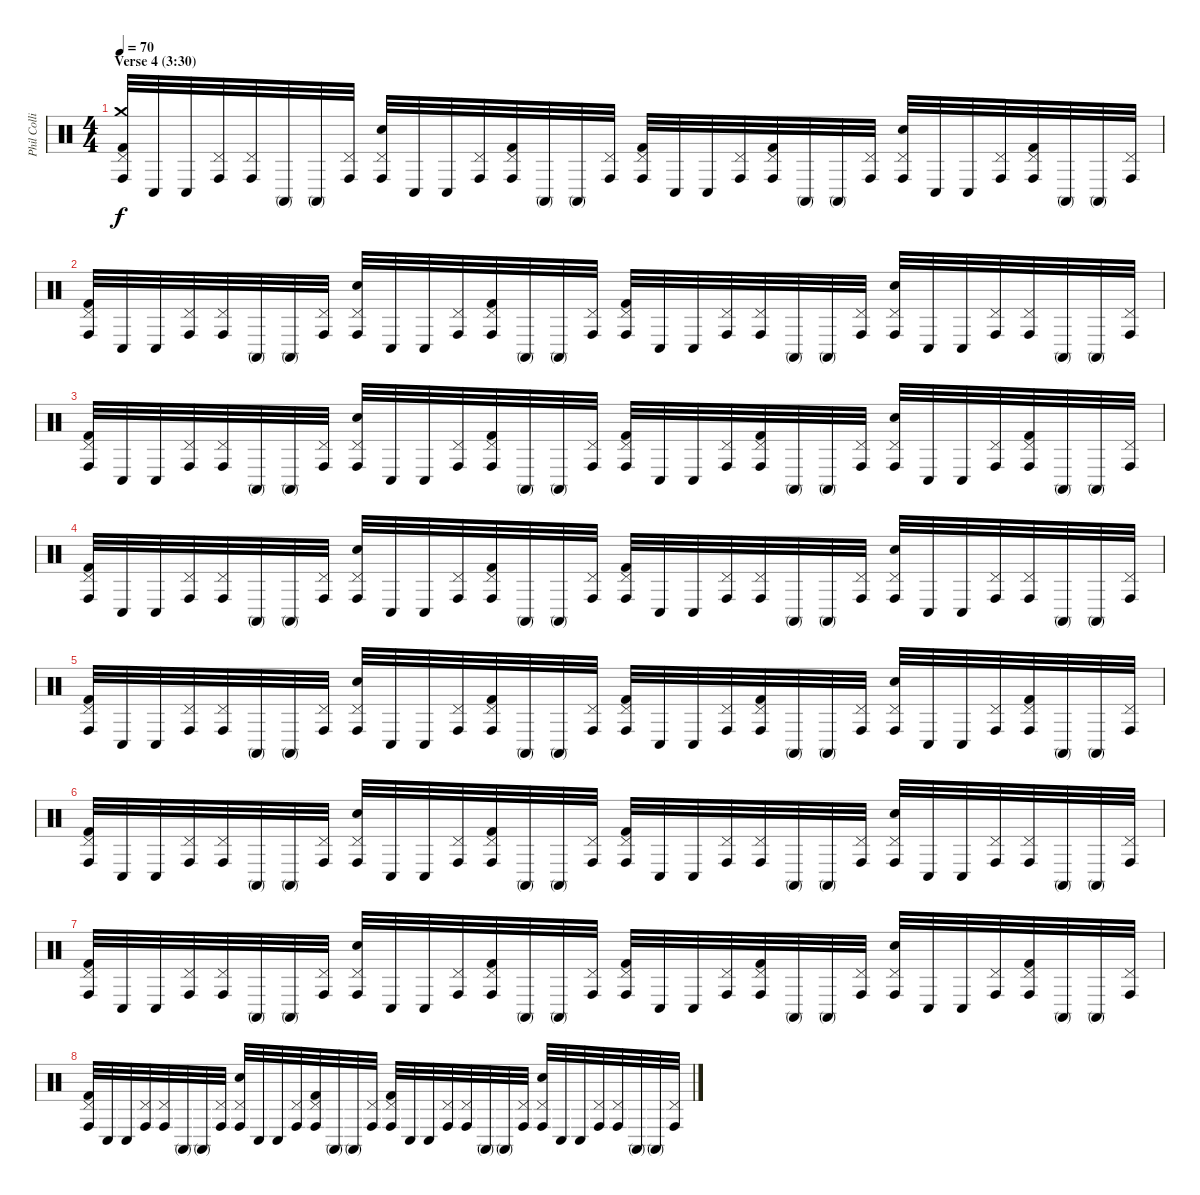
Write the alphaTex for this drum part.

\track ("Phil Collins (drums)" "Phil Colli") {instrument percussion}
\staff {score}
\articulation defaults
\ts (4 4)
\section ("" "Verse 4 (3:30)")
\tempo 70
\clef neutral
\ks c
("Crash medium (hit)" "Conga high (hit)" "Pedal Hi-Hat (hit)" "Kick (hit) 2").32{dy f} "Conga low (hit)".32 "Conga low (hit)".32 ("Conga high (hit)" "Pedal Hi-Hat (hit)").32 ("Conga high (hit)" "Pedal Hi-Hat (hit)").32 "Conga high (mute)".32 "Conga high (mute)".32 ("Conga high (hit)" "Pedal Hi-Hat (hit)").32 ("Conga high (hit)" "Pedal Hi-Hat (hit)" "Electric Snare (hit)").32 "Conga low (hit)".32 "Conga low (hit)".32 ("Conga high (hit)" "Pedal Hi-Hat (hit)").32 ("Conga high (hit)" "Pedal Hi-Hat (hit)" "Kick (hit) 2").32 "Conga high (mute)".32 "Conga high (mute)".32 ("Conga high (hit)" "Pedal Hi-Hat (hit)").32 ("Conga high (hit)" "Pedal Hi-Hat (hit)" "Kick (hit) 2").32 "Conga low (hit)".32 "Conga low (hit)".32 ("Conga high (hit)" "Pedal Hi-Hat (hit)").32 ("Conga high (hit)" "Pedal Hi-Hat (hit)" "Kick (hit) 2").32 "Conga high (mute)".32 "Conga high (mute)".32 ("Conga high (hit)" "Pedal Hi-Hat (hit)").32 ("Conga high (hit)" "Pedal Hi-Hat (hit)" "Electric Snare (hit)").32 "Conga low (hit)".32 "Conga low (hit)".32 ("Conga high (hit)" "Pedal Hi-Hat (hit)").32 ("Conga high (hit)" "Pedal Hi-Hat (hit)" "Kick (hit) 2").32 "Conga high (mute)".32 "Conga high (mute)".32 ("Conga high (hit)" "Pedal Hi-Hat (hit)").32 |
("Conga high (hit)" "Pedal Hi-Hat (hit)" "Kick (hit) 2").32 "Conga low (hit)".32 "Conga low (hit)".32 ("Conga high (hit)" "Pedal Hi-Hat (hit)").32 ("Conga high (hit)" "Pedal Hi-Hat (hit)").32 "Conga high (mute)".32 "Conga high (mute)".32 ("Conga high (hit)" "Pedal Hi-Hat (hit)").32 ("Conga high (hit)" "Pedal Hi-Hat (hit)" "Electric Snare (hit)").32 "Conga low (hit)".32 "Conga low (hit)".32 ("Conga high (hit)" "Pedal Hi-Hat (hit)").32 ("Conga high (hit)" "Pedal Hi-Hat (hit)" "Kick (hit) 2").32 "Conga high (mute)".32 "Conga high (mute)".32 ("Conga high (hit)" "Pedal Hi-Hat (hit)").32 ("Conga high (hit)" "Pedal Hi-Hat (hit)" "Kick (hit) 2").32 "Conga low (hit)".32 "Conga low (hit)".32 ("Conga high (hit)" "Pedal Hi-Hat (hit)").32 ("Conga high (hit)" "Pedal Hi-Hat (hit)").32 "Conga high (mute)".32 "Conga high (mute)".32 ("Conga high (hit)" "Pedal Hi-Hat (hit)").32 ("Conga high (hit)" "Pedal Hi-Hat (hit)" "Electric Snare (hit)").32 "Conga low (hit)".32 "Conga low (hit)".32 ("Conga high (hit)" "Pedal Hi-Hat (hit)").32 ("Conga high (hit)" "Pedal Hi-Hat (hit)").32 "Conga high (mute)".32 "Conga high (mute)".32 ("Conga high (hit)" "Pedal Hi-Hat (hit)").32 |
("Conga high (hit)" "Pedal Hi-Hat (hit)" "Kick (hit) 2").32 "Conga low (hit)".32 "Conga low (hit)".32 ("Conga high (hit)" "Pedal Hi-Hat (hit)").32 ("Conga high (hit)" "Pedal Hi-Hat (hit)").32 "Conga high (mute)".32 "Conga high (mute)".32 ("Conga high (hit)" "Pedal Hi-Hat (hit)").32 ("Conga high (hit)" "Pedal Hi-Hat (hit)" "Electric Snare (hit)").32 "Conga low (hit)".32 "Conga low (hit)".32 ("Conga high (hit)" "Pedal Hi-Hat (hit)").32 ("Conga high (hit)" "Pedal Hi-Hat (hit)" "Kick (hit) 2").32 "Conga high (mute)".32 "Conga high (mute)".32 ("Conga high (hit)" "Pedal Hi-Hat (hit)").32 ("Conga high (hit)" "Pedal Hi-Hat (hit)" "Kick (hit) 2").32 "Conga low (hit)".32 "Conga low (hit)".32 ("Conga high (hit)" "Pedal Hi-Hat (hit)").32 ("Conga high (hit)" "Pedal Hi-Hat (hit)" "Kick (hit) 2").32 "Conga high (mute)".32 "Conga high (mute)".32 ("Conga high (hit)" "Pedal Hi-Hat (hit)").32 ("Conga high (hit)" "Pedal Hi-Hat (hit)" "Electric Snare (hit)").32 "Conga low (hit)".32 "Conga low (hit)".32 ("Conga high (hit)" "Pedal Hi-Hat (hit)").32 ("Conga high (hit)" "Pedal Hi-Hat (hit)" "Kick (hit) 2").32 "Conga high (mute)".32 "Conga high (mute)".32 ("Conga high (hit)" "Pedal Hi-Hat (hit)").32 |
("Conga high (hit)" "Pedal Hi-Hat (hit)" "Kick (hit) 2").32 "Conga low (hit)".32 "Conga low (hit)".32 ("Conga high (hit)" "Pedal Hi-Hat (hit)").32 ("Conga high (hit)" "Pedal Hi-Hat (hit)").32 "Conga high (mute)".32 "Conga high (mute)".32 ("Conga high (hit)" "Pedal Hi-Hat (hit)").32 ("Conga high (hit)" "Pedal Hi-Hat (hit)" "Electric Snare (hit)").32 "Conga low (hit)".32 "Conga low (hit)".32 ("Conga high (hit)" "Pedal Hi-Hat (hit)").32 ("Conga high (hit)" "Pedal Hi-Hat (hit)" "Kick (hit) 2").32 "Conga high (mute)".32 "Conga high (mute)".32 ("Conga high (hit)" "Pedal Hi-Hat (hit)").32 ("Conga high (hit)" "Pedal Hi-Hat (hit)" "Kick (hit) 2").32 "Conga low (hit)".32 "Conga low (hit)".32 ("Conga high (hit)" "Pedal Hi-Hat (hit)").32 ("Conga high (hit)" "Pedal Hi-Hat (hit)").32 "Conga high (mute)".32 "Conga high (mute)".32 ("Conga high (hit)" "Pedal Hi-Hat (hit)").32 ("Conga high (hit)" "Pedal Hi-Hat (hit)" "Electric Snare (hit)").32 "Conga low (hit)".32 "Conga low (hit)".32 ("Conga high (hit)" "Pedal Hi-Hat (hit)").32 ("Conga high (hit)" "Pedal Hi-Hat (hit)").32 "Conga high (mute)".32 "Conga high (mute)".32 ("Conga high (hit)" "Pedal Hi-Hat (hit)").32 |
("Conga high (hit)" "Pedal Hi-Hat (hit)" "Kick (hit) 2").32 "Conga low (hit)".32 "Conga low (hit)".32 ("Conga high (hit)" "Pedal Hi-Hat (hit)").32 ("Conga high (hit)" "Pedal Hi-Hat (hit)").32 "Conga high (mute)".32 "Conga high (mute)".32 ("Conga high (hit)" "Pedal Hi-Hat (hit)").32 ("Conga high (hit)" "Pedal Hi-Hat (hit)" "Electric Snare (hit)").32 "Conga low (hit)".32 "Conga low (hit)".32 ("Conga high (hit)" "Pedal Hi-Hat (hit)").32 ("Conga high (hit)" "Pedal Hi-Hat (hit)" "Kick (hit) 2").32 "Conga high (mute)".32 "Conga high (mute)".32 ("Conga high (hit)" "Pedal Hi-Hat (hit)").32 ("Conga high (hit)" "Pedal Hi-Hat (hit)" "Kick (hit) 2").32 "Conga low (hit)".32 "Conga low (hit)".32 ("Conga high (hit)" "Pedal Hi-Hat (hit)").32 ("Conga high (hit)" "Pedal Hi-Hat (hit)" "Kick (hit) 2").32 "Conga high (mute)".32 "Conga high (mute)".32 ("Conga high (hit)" "Pedal Hi-Hat (hit)").32 ("Conga high (hit)" "Pedal Hi-Hat (hit)" "Electric Snare (hit)").32 "Conga low (hit)".32 "Conga low (hit)".32 ("Conga high (hit)" "Pedal Hi-Hat (hit)").32 ("Conga high (hit)" "Pedal Hi-Hat (hit)" "Kick (hit) 2").32 "Conga high (mute)".32 "Conga high (mute)".32 ("Conga high (hit)" "Pedal Hi-Hat (hit)").32 |
("Conga high (hit)" "Pedal Hi-Hat (hit)" "Kick (hit) 2").32 "Conga low (hit)".32 "Conga low (hit)".32 ("Conga high (hit)" "Pedal Hi-Hat (hit)").32 ("Conga high (hit)" "Pedal Hi-Hat (hit)").32 "Conga high (mute)".32 "Conga high (mute)".32 ("Conga high (hit)" "Pedal Hi-Hat (hit)").32 ("Conga high (hit)" "Pedal Hi-Hat (hit)" "Electric Snare (hit)").32 "Conga low (hit)".32 "Conga low (hit)".32 ("Conga high (hit)" "Pedal Hi-Hat (hit)").32 ("Conga high (hit)" "Pedal Hi-Hat (hit)" "Kick (hit) 2").32 "Conga high (mute)".32 "Conga high (mute)".32 ("Conga high (hit)" "Pedal Hi-Hat (hit)").32 ("Conga high (hit)" "Pedal Hi-Hat (hit)" "Kick (hit) 2").32 "Conga low (hit)".32 "Conga low (hit)".32 ("Conga high (hit)" "Pedal Hi-Hat (hit)").32 ("Conga high (hit)" "Pedal Hi-Hat (hit)").32 "Conga high (mute)".32 "Conga high (mute)".32 ("Conga high (hit)" "Pedal Hi-Hat (hit)").32 ("Conga high (hit)" "Pedal Hi-Hat (hit)" "Electric Snare (hit)").32 "Conga low (hit)".32 "Conga low (hit)".32 ("Conga high (hit)" "Pedal Hi-Hat (hit)").32 ("Conga high (hit)" "Pedal Hi-Hat (hit)").32 "Conga high (mute)".32 "Conga high (mute)".32 ("Conga high (hit)" "Pedal Hi-Hat (hit)").32 |
("Conga high (hit)" "Pedal Hi-Hat (hit)" "Kick (hit) 2").32 "Conga low (hit)".32 "Conga low (hit)".32 ("Conga high (hit)" "Pedal Hi-Hat (hit)").32 ("Conga high (hit)" "Pedal Hi-Hat (hit)").32 "Conga high (mute)".32 "Conga high (mute)".32 ("Conga high (hit)" "Pedal Hi-Hat (hit)").32 ("Conga high (hit)" "Pedal Hi-Hat (hit)" "Electric Snare (hit)").32 "Conga low (hit)".32 "Conga low (hit)".32 ("Conga high (hit)" "Pedal Hi-Hat (hit)").32 ("Conga high (hit)" "Pedal Hi-Hat (hit)" "Kick (hit) 2").32 "Conga high (mute)".32 "Conga high (mute)".32 ("Conga high (hit)" "Pedal Hi-Hat (hit)").32 ("Conga high (hit)" "Pedal Hi-Hat (hit)" "Kick (hit) 2").32 "Conga low (hit)".32 "Conga low (hit)".32 ("Conga high (hit)" "Pedal Hi-Hat (hit)").32 ("Conga high (hit)" "Pedal Hi-Hat (hit)" "Kick (hit) 2").32 "Conga high (mute)".32 "Conga high (mute)".32 ("Conga high (hit)" "Pedal Hi-Hat (hit)").32 ("Conga high (hit)" "Pedal Hi-Hat (hit)" "Electric Snare (hit)").32 "Conga low (hit)".32 "Conga low (hit)".32 ("Conga high (hit)" "Pedal Hi-Hat (hit)").32 ("Conga high (hit)" "Pedal Hi-Hat (hit)" "Kick (hit) 2").32 "Conga high (mute)".32 "Conga high (mute)".32 ("Conga high (hit)" "Pedal Hi-Hat (hit)").32 |
("Conga high (hit)" "Pedal Hi-Hat (hit)" "Kick (hit) 2").32 "Conga low (hit)".32 "Conga low (hit)".32 ("Conga high (hit)" "Pedal Hi-Hat (hit)").32 ("Conga high (hit)" "Pedal Hi-Hat (hit)").32 "Conga high (mute)".32 "Conga high (mute)".32 ("Conga high (hit)" "Pedal Hi-Hat (hit)").32 ("Conga high (hit)" "Pedal Hi-Hat (hit)" "Electric Snare (hit)").32 "Conga low (hit)".32 "Conga low (hit)".32 ("Conga high (hit)" "Pedal Hi-Hat (hit)").32 ("Conga high (hit)" "Pedal Hi-Hat (hit)" "Kick (hit) 2").32 "Conga high (mute)".32 "Conga high (mute)".32 ("Conga high (hit)" "Pedal Hi-Hat (hit)").32 ("Conga high (hit)" "Pedal Hi-Hat (hit)" "Kick (hit) 2").32 "Conga low (hit)".32 "Conga low (hit)".32 ("Conga high (hit)" "Pedal Hi-Hat (hit)").32 ("Conga high (hit)" "Pedal Hi-Hat (hit)").32 "Conga high (mute)".32 "Conga high (mute)".32 ("Conga high (hit)" "Pedal Hi-Hat (hit)").32 ("Conga high (hit)" "Pedal Hi-Hat (hit)" "Electric Snare (hit)").32 "Conga low (hit)".32 "Conga low (hit)".32 ("Conga high (hit)" "Pedal Hi-Hat (hit)").32 ("Conga high (hit)" "Pedal Hi-Hat (hit)").32 "Conga high (mute)".32 "Conga high (mute)".32 ("Conga high (hit)" "Pedal Hi-Hat (hit)").32
